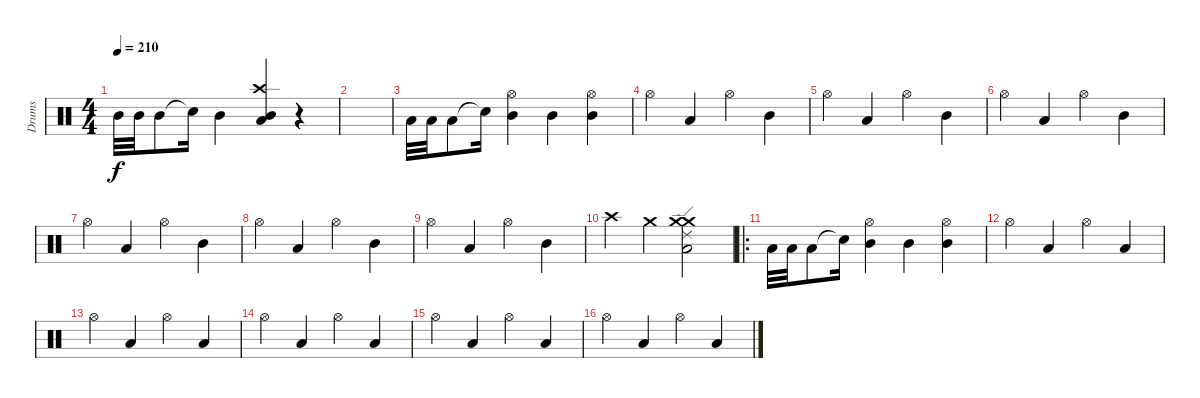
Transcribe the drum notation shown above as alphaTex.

\track ("Drums" "Drums") {instrument percussion}
\staff {score}
\articulation defaults
\ts (4 4)
\tempo 210
\clef neutral
\ks c "Mid Tom (hit)".32{dy f} "Mid Tom (hit)".32 "Mid Tom (hit)".8 "Snare (hit)"{t}.16 "Mid Tom (hit)".4
("Crash high (hit)" "Mid Tom (hit)" "Low Tom (hit)").4 r.4 |
|
"Low Tom (hit)".32 "Low Tom (hit)".32 "Low Tom (hit)".8 "Snare (hit)"{t}.16 ("Hi-Hat (open)" "Mid Tom (hit)").4 "Mid Tom (hit)".4 ("Hi-Hat (open)" "Mid Tom (hit)").4 |
"Hi-Hat (open)".4 "Low Tom (hit)".4 "Hi-Hat (open)".4 "Mid Tom (hit)".4 |
"Hi-Hat (open)".4 "Low Tom (hit)".4 "Hi-Hat (open)".4 "Mid Tom (hit)".4 |
"Hi-Hat (open)".4 "Low Tom (hit)".4 "Hi-Hat (open)".4 "Mid Tom (hit)".4 |
"Hi-Hat (open)".4 "Low Tom (hit)".4 "Hi-Hat (open)".4 "Mid Tom (hit)".4 |
"Hi-Hat (open)".4 "Low Tom (hit)".4 "Hi-Hat (open)".4 "Mid Tom (hit)".4 |
"Hi-Hat (open)".4 "Low Tom (hit)".4 "Hi-Hat (open)".4 "Mid Tom (hit)".4 |
"Crash high (hit)".4 "Crash medium (hit)".4 ("Crash medium (hit)" "Low Tom (hit)" "Ride (edge) 2" "Crash medium (hit)").2 |
\ro "Low Tom (hit)".32 "Low Tom (hit)".32 "Low Tom (hit)".8 "Snare (hit)"{t}.16
("Hi-Hat (open)" "Mid Tom (hit)").4 "Mid Tom (hit)".4 ("Hi-Hat (open)" "Mid Tom (hit)").4 |
"Hi-Hat (open)".4 "Low Tom (hit)".4 "Hi-Hat (open)".4 "Low Tom (hit)".4 |
"Hi-Hat (open)".4 "Low Tom (hit)".4 "Hi-Hat (open)".4 "Low Tom (hit)".4 |
"Hi-Hat (open)".4 "Low Tom (hit)".4 "Hi-Hat (open)".4 "Low Tom (hit)".4 |
"Hi-Hat (open)".4 "Low Tom (hit)".4 "Hi-Hat (open)".4 "Low Tom (hit)".4 |
"Hi-Hat (open)".4 "Low Tom (hit)".4 "Hi-Hat (open)".4 "Low Tom (hit)".4
